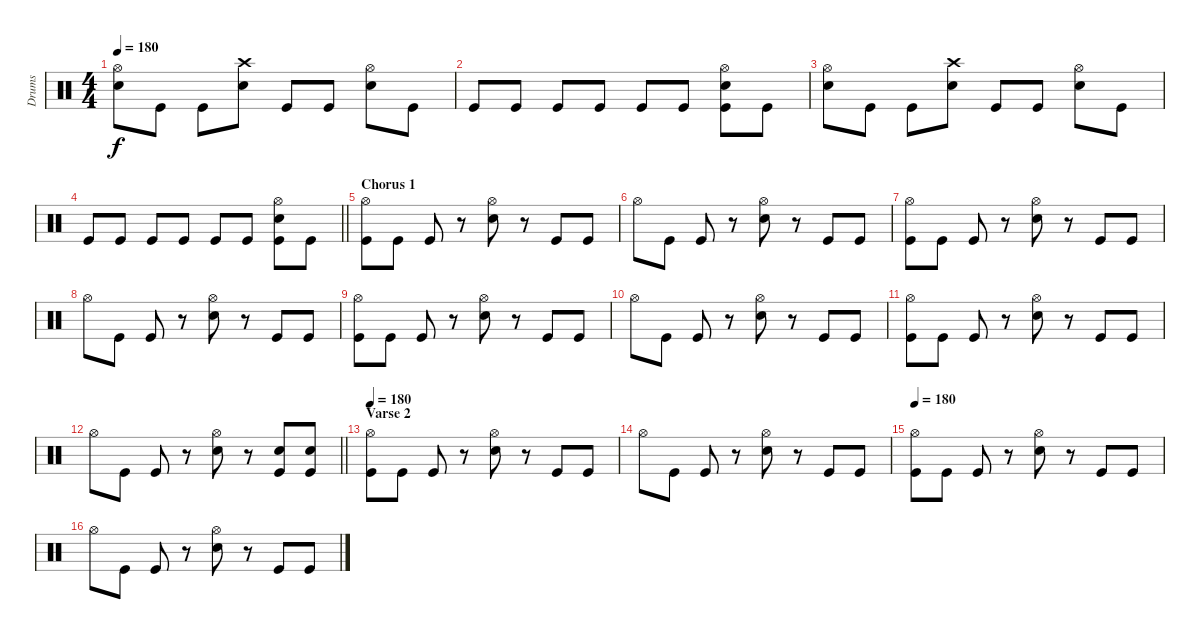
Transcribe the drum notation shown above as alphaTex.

\track ("Drums" "Drums") {instrument percussion}
\staff {score}
\articulation defaults
\ts (4 4)
\tempo 180
\clef neutral
\ks c
("Hi-Hat (open)" "Electric Snare (hit)").8{dy f} "Kick (hit)".8 "Kick (hit)".8 ("Crash high (hit)" "Electric Snare (hit)").8 "Kick (hit)".8 "Kick (hit)".8 ("Hi-Hat (open)" "Electric Snare (hit)").8 "Kick (hit)".8 |
"Kick (hit)".8 "Kick (hit)".8 "Kick (hit)".8 "Kick (hit)".8 "Kick (hit)".8 "Kick (hit)".8 ("Hi-Hat (open)" "Electric Snare (hit)" "Kick (hit)").8 "Kick (hit)".8 |
("Hi-Hat (open)" "Electric Snare (hit)").8 "Kick (hit)".8 "Kick (hit)".8 ("Crash high (hit)" "Electric Snare (hit)").8 "Kick (hit)".8 "Kick (hit)".8 ("Hi-Hat (open)" "Electric Snare (hit)").8 "Kick (hit)".8 |
\barLineRight lightlight "Kick (hit)".8 "Kick (hit)".8 "Kick (hit)".8 "Kick (hit)".8 "Kick (hit)".8 "Kick (hit)".8
("Hi-Hat (open)" "Electric Snare (hit)" "Kick (hit)").8 "Kick (hit)".8 |
\section ("" "Chorus 1")
("Hi-Hat (open)" "Kick (hit)").8 "Kick (hit)".8 "Kick (hit)".8 r.8 ("Hi-Hat (open)" "Electric Snare (hit)").8 r.8 "Kick (hit)".8 "Kick (hit)".8 |
"Hi-Hat (open)".8 "Kick (hit)".8 "Kick (hit)".8 r.8 ("Hi-Hat (open)" "Electric Snare (hit)").8 r.8 "Kick (hit)".8 "Kick (hit)".8 |
("Hi-Hat (open)" "Kick (hit)").8 "Kick (hit)".8 "Kick (hit)".8 r.8 ("Hi-Hat (open)" "Electric Snare (hit)").8 r.8 "Kick (hit)".8 "Kick (hit)".8 |
"Hi-Hat (open)".8 "Kick (hit)".8 "Kick (hit)".8 r.8 ("Hi-Hat (open)" "Electric Snare (hit)").8 r.8 "Kick (hit)".8 "Kick (hit)".8 |
("Hi-Hat (open)" "Kick (hit)").8 "Kick (hit)".8 "Kick (hit)".8 r.8 ("Hi-Hat (open)" "Electric Snare (hit)").8 r.8 "Kick (hit)".8 "Kick (hit)".8 |
"Hi-Hat (open)".8 "Kick (hit)".8 "Kick (hit)".8 r.8 ("Hi-Hat (open)" "Electric Snare (hit)").8 r.8 "Kick (hit)".8 "Kick (hit)".8 |
("Hi-Hat (open)" "Kick (hit)").8 "Kick (hit)".8 "Kick (hit)".8 r.8 ("Hi-Hat (open)" "Electric Snare (hit)").8 r.8 "Kick (hit)".8 "Kick (hit)".8 |
\barLineRight lightlight "Hi-Hat (open)".8 "Kick (hit)".8 "Kick (hit)".8
r.8 ("Hi-Hat (open)" "Electric Snare (hit)").8 r.8 ("Electric Snare (hit)" "Kick (hit)").8 ("Electric Snare (hit)" "Kick (hit)").8 |
\section ("" "Varse 2")
\tempo 180
("Hi-Hat (open)" "Kick (hit)").8 "Kick (hit)".8 "Kick (hit)".8 r.8 ("Hi-Hat (open)" "Electric Snare (hit)").8 r.8 "Kick (hit)".8 "Kick (hit)".8 |
"Hi-Hat (open)".8 "Kick (hit)".8 "Kick (hit)".8 r.8 ("Hi-Hat (open)" "Electric Snare (hit)").8 r.8 "Kick (hit)".8 "Kick (hit)".8 |
\tempo 180
("Hi-Hat (open)" "Kick (hit)").8 "Kick (hit)".8 "Kick (hit)".8 r.8 ("Hi-Hat (open)" "Electric Snare (hit)").8 r.8 "Kick (hit)".8 "Kick (hit)".8 |
"Hi-Hat (open)".8 "Kick (hit)".8 "Kick (hit)".8 r.8 ("Hi-Hat (open)" "Electric Snare (hit)").8 r.8 "Kick (hit)".8 "Kick (hit)".8
